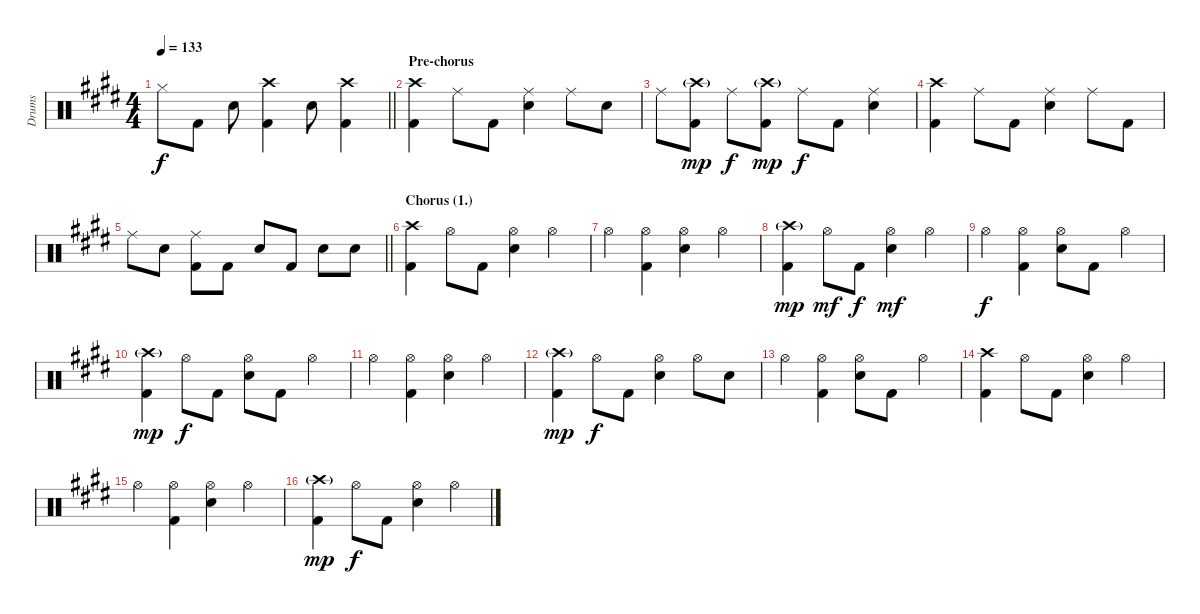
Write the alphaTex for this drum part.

\track ("Drums" "Drums") {instrument percussion}
\staff {score}
\articulation defaults
\ts (4 4)
\tempo 133
\clef neutral
\barLineRight lightlight
\ks e "Hi-Hat (closed)".8{dy f} "Kick (hit) 2".8 "Electric Snare (hit)".8
("Crash high (hit)" "Kick (hit) 2").4 "Electric Snare (hit)".8 ("Crash high (hit)" "Kick (hit) 2").4 |
\section ("" "Pre-chorus")
("Crash high (hit)" "Kick (hit) 2").4{volume 11} "Ride (middle)".8 "Kick (hit) 2".8 ("Ride (middle)" "Electric Snare (hit)").4 "Ride (middle)".8 "Electric Snare (hit)".8 |
"Ride (middle)".8 ("Crash high (hit)"{g} "Kick (hit) 2").8{dy mp} "Ride (middle)".8{dy f} ("Crash high (hit)"{g} "Kick (hit) 2").8{dy mp} "Ride (middle)".8{dy f} "Kick (hit) 2".8 ("Ride (middle)" "Electric Snare (hit)").4 |
("Crash high (hit)" "Kick (hit) 2").4 "Ride (middle)".8 "Kick (hit) 2".8 ("Ride (middle)" "Electric Snare (hit)").4 "Ride (middle)".8 "Kick (hit) 2".8 |
\barLineRight lightlight "Ride (middle)".8 "Electric Snare (hit)".8
("Ride (middle)" "Kick (hit) 2").8 "Kick (hit) 2".8 "Electric Snare (hit)".8 "Kick (hit) 2".8 "Electric Snare (hit)".8 "Electric Snare (hit)".8 |
\section ("" "Chorus (1.)")
("Crash high (hit)" "Kick (hit) 2").4 "Hi-Hat (open)".8 "Kick (hit) 2".8 ("Hi-Hat (open)" "Electric Snare (hit)").4 "Hi-Hat (open)".4 |
"Hi-Hat (open)".4 ("Hi-Hat (open)" "Kick (hit) 2").4 ("Hi-Hat (open)" "Electric Snare (hit)").4 "Hi-Hat (open)".4 |
("Crash high (hit)"{g} "Kick (hit) 2").4{dy mp} "Hi-Hat (open)".8{dy mf} "Kick (hit) 2".8{dy f} ("Hi-Hat (open)" "Electric Snare (hit)").4{dy mf} "Hi-Hat (open)".4 |
"Hi-Hat (open)".4{dy f} ("Hi-Hat (open)" "Kick (hit) 2").4 ("Hi-Hat (open)" "Electric Snare (hit)").8 "Kick (hit) 2".8 "Hi-Hat (open)".4 |
("Crash high (hit)"{g} "Kick (hit) 2").4{dy mp} "Hi-Hat (open)".8{dy f} "Kick (hit) 2".8 ("Hi-Hat (open)" "Electric Snare (hit)").8 "Kick (hit) 2".8 "Hi-Hat (open)".4 |
"Hi-Hat (open)".4 ("Hi-Hat (open)" "Kick (hit) 2").4 ("Hi-Hat (open)" "Electric Snare (hit)").4 "Hi-Hat (open)".4 |
("Crash high (hit)"{g} "Kick (hit) 2").4{dy mp} "Hi-Hat (open)".8{dy f} "Kick (hit) 2".8 ("Hi-Hat (open)" "Electric Snare (hit)").4 "Hi-Hat (open)".8 "Electric Snare (hit)".8 |
"Hi-Hat (open)".4 ("Hi-Hat (open)" "Kick (hit) 2").4 ("Hi-Hat (open)" "Electric Snare (hit)").8 "Kick (hit) 2".8 "Hi-Hat (open)".4 |
("Crash high (hit)" "Kick (hit) 2").4 "Hi-Hat (open)".8 "Kick (hit) 2".8 ("Hi-Hat (open)" "Electric Snare (hit)").4 "Hi-Hat (open)".4 |
"Hi-Hat (open)".4 ("Hi-Hat (open)" "Kick (hit) 2").4 ("Hi-Hat (open)" "Electric Snare (hit)").4 "Hi-Hat (open)".4 |
("Crash high (hit)"{g} "Kick (hit) 2").4{dy mp} "Hi-Hat (open)".8{dy f} "Kick (hit) 2".8 ("Hi-Hat (open)" "Electric Snare (hit)").4 "Hi-Hat (open)".4
